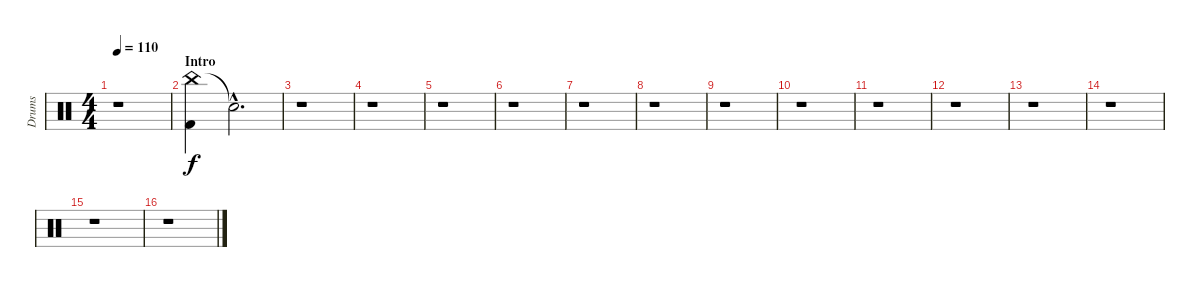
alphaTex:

\track ("Drums" "Drums") {instrument percussion}
\staff {score}
\articulation defaults
\ts (4 4)
\tempo 110
\clef neutral
\ks c
r.1{dy f} |
\section ("" "Intro")
("China (hit)" "Kick (hit) 2").4 "Snare (hit)"{hac t}.2{d} |
r.1 |
r.1 |
r.1 |
r.1 |
r.1 |
r.1 |
r.1 |
r.1 |
r.1 |
r.1 |
r.1 |
r.1 |
r.1 |
r.1
